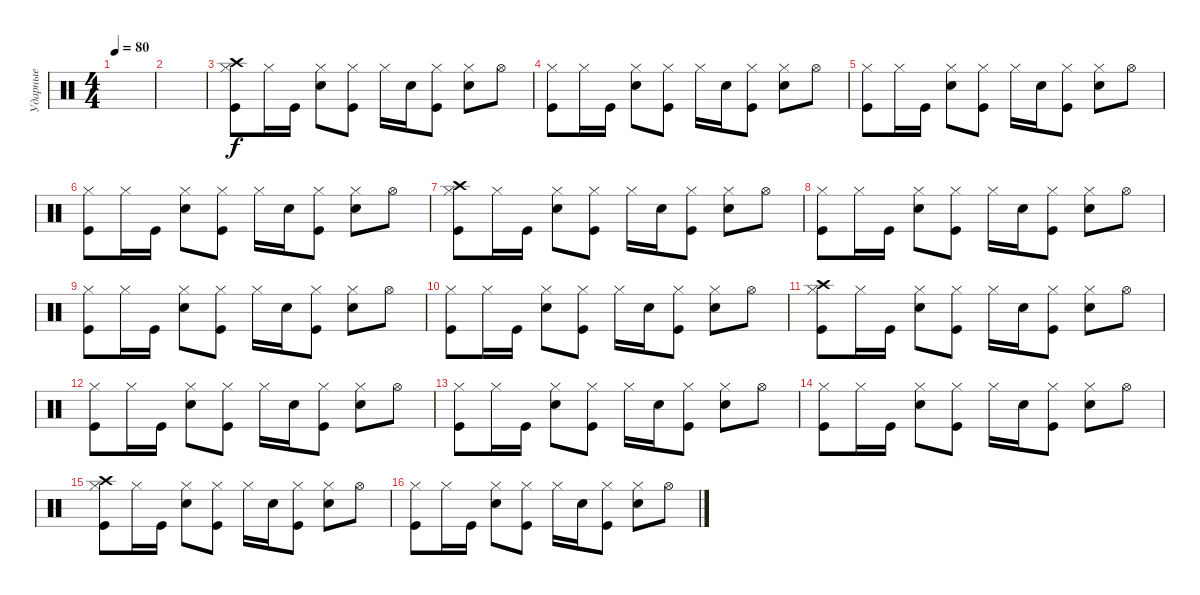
\track ("Ударные" "Ударные") {instrument percussion}
\staff {score}
\articulation defaults
\ts (4 4)
\tempo 80
\clef neutral
\ks c
|
|
("Crash high (hit)" "Hi-Hat (closed)" "Kick (hit)").8{balance 0} "Hi-Hat (closed)".16 "Kick (hit)".16 ("Hi-Hat (closed)" "Electric Snare (hit)").8 ("Hi-Hat (closed)" "Kick (hit)").8 "Hi-Hat (closed)".16 "Electric Snare (hit)".16 ("Hi-Hat (closed)" "Kick (hit)").8 ("Hi-Hat (closed)" "Electric Snare (hit)").8 "Hi-Hat (open)".8 |
("Hi-Hat (closed)" "Kick (hit)").8 "Hi-Hat (closed)".16 "Kick (hit)".16 ("Hi-Hat (closed)" "Electric Snare (hit)").8 ("Hi-Hat (closed)" "Kick (hit)").8 "Hi-Hat (closed)".16 "Electric Snare (hit)".16 ("Hi-Hat (closed)" "Kick (hit)").8 ("Hi-Hat (closed)" "Electric Snare (hit)").8 "Hi-Hat (open)".8 |
("Hi-Hat (closed)" "Kick (hit)").8 "Hi-Hat (closed)".16 "Kick (hit)".16 ("Hi-Hat (closed)" "Electric Snare (hit)").8 ("Hi-Hat (closed)" "Kick (hit)").8 "Hi-Hat (closed)".16 "Electric Snare (hit)".16 ("Hi-Hat (closed)" "Kick (hit)").8 ("Hi-Hat (closed)" "Electric Snare (hit)").8 "Hi-Hat (open)".8 |
("Hi-Hat (closed)" "Kick (hit)").8 "Hi-Hat (closed)".16 "Kick (hit)".16 ("Hi-Hat (closed)" "Electric Snare (hit)").8 ("Hi-Hat (closed)" "Kick (hit)").8 "Hi-Hat (closed)".16 "Electric Snare (hit)".16 ("Hi-Hat (closed)" "Kick (hit)").8 ("Hi-Hat (closed)" "Electric Snare (hit)").8 "Hi-Hat (open)".8 |
("Crash high (hit)" "Hi-Hat (closed)" "Kick (hit)").8{balance 0} "Hi-Hat (closed)".16 "Kick (hit)".16 ("Hi-Hat (closed)" "Electric Snare (hit)").8 ("Hi-Hat (closed)" "Kick (hit)").8 "Hi-Hat (closed)".16 "Electric Snare (hit)".16 ("Hi-Hat (closed)" "Kick (hit)").8 ("Hi-Hat (closed)" "Electric Snare (hit)").8 "Hi-Hat (open)".8 |
("Hi-Hat (closed)" "Kick (hit)").8 "Hi-Hat (closed)".16 "Kick (hit)".16 ("Hi-Hat (closed)" "Electric Snare (hit)").8 ("Hi-Hat (closed)" "Kick (hit)").8 "Hi-Hat (closed)".16 "Electric Snare (hit)".16 ("Hi-Hat (closed)" "Kick (hit)").8 ("Hi-Hat (closed)" "Electric Snare (hit)").8 "Hi-Hat (open)".8 |
("Hi-Hat (closed)" "Kick (hit)").8 "Hi-Hat (closed)".16 "Kick (hit)".16 ("Hi-Hat (closed)" "Electric Snare (hit)").8 ("Hi-Hat (closed)" "Kick (hit)").8 "Hi-Hat (closed)".16 "Electric Snare (hit)".16 ("Hi-Hat (closed)" "Kick (hit)").8 ("Hi-Hat (closed)" "Electric Snare (hit)").8 "Hi-Hat (open)".8 |
("Hi-Hat (closed)" "Kick (hit)").8 "Hi-Hat (closed)".16 "Kick (hit)".16 ("Hi-Hat (closed)" "Electric Snare (hit)").8 ("Hi-Hat (closed)" "Kick (hit)").8 "Hi-Hat (closed)".16 "Electric Snare (hit)".16 ("Hi-Hat (closed)" "Kick (hit)").8 ("Hi-Hat (closed)" "Electric Snare (hit)").8 "Hi-Hat (open)".8 |
("Crash high (hit)" "Hi-Hat (closed)" "Kick (hit)").8{balance 0} "Hi-Hat (closed)".16 "Kick (hit)".16 ("Hi-Hat (closed)" "Electric Snare (hit)").8 ("Hi-Hat (closed)" "Kick (hit)").8 "Hi-Hat (closed)".16 "Electric Snare (hit)".16 ("Hi-Hat (closed)" "Kick (hit)").8 ("Hi-Hat (closed)" "Electric Snare (hit)").8 "Hi-Hat (open)".8 |
("Hi-Hat (closed)" "Kick (hit)").8 "Hi-Hat (closed)".16 "Kick (hit)".16 ("Hi-Hat (closed)" "Electric Snare (hit)").8 ("Hi-Hat (closed)" "Kick (hit)").8 "Hi-Hat (closed)".16 "Electric Snare (hit)".16 ("Hi-Hat (closed)" "Kick (hit)").8 ("Hi-Hat (closed)" "Electric Snare (hit)").8 "Hi-Hat (open)".8 |
("Hi-Hat (closed)" "Kick (hit)").8 "Hi-Hat (closed)".16 "Kick (hit)".16 ("Hi-Hat (closed)" "Electric Snare (hit)").8 ("Hi-Hat (closed)" "Kick (hit)").8 "Hi-Hat (closed)".16 "Electric Snare (hit)".16 ("Hi-Hat (closed)" "Kick (hit)").8 ("Hi-Hat (closed)" "Electric Snare (hit)").8 "Hi-Hat (open)".8 |
("Hi-Hat (closed)" "Kick (hit)").8 "Hi-Hat (closed)".16 "Kick (hit)".16 ("Hi-Hat (closed)" "Electric Snare (hit)").8 ("Hi-Hat (closed)" "Kick (hit)").8 "Hi-Hat (closed)".16 "Electric Snare (hit)".16 ("Hi-Hat (closed)" "Kick (hit)").8 ("Hi-Hat (closed)" "Electric Snare (hit)").8 "Hi-Hat (open)".8 |
("Crash high (hit)" "Hi-Hat (closed)" "Kick (hit)").8{balance 0} "Hi-Hat (closed)".16 "Kick (hit)".16 ("Hi-Hat (closed)" "Electric Snare (hit)").8 ("Hi-Hat (closed)" "Kick (hit)").8 "Hi-Hat (closed)".16 "Electric Snare (hit)".16 ("Hi-Hat (closed)" "Kick (hit)").8 ("Hi-Hat (closed)" "Electric Snare (hit)").8 "Hi-Hat (open)".8 |
("Hi-Hat (closed)" "Kick (hit)").8 "Hi-Hat (closed)".16 "Kick (hit)".16 ("Hi-Hat (closed)" "Electric Snare (hit)").8 ("Hi-Hat (closed)" "Kick (hit)").8 "Hi-Hat (closed)".16 "Electric Snare (hit)".16 ("Hi-Hat (closed)" "Kick (hit)").8 ("Hi-Hat (closed)" "Electric Snare (hit)").8 "Hi-Hat (open)".8
